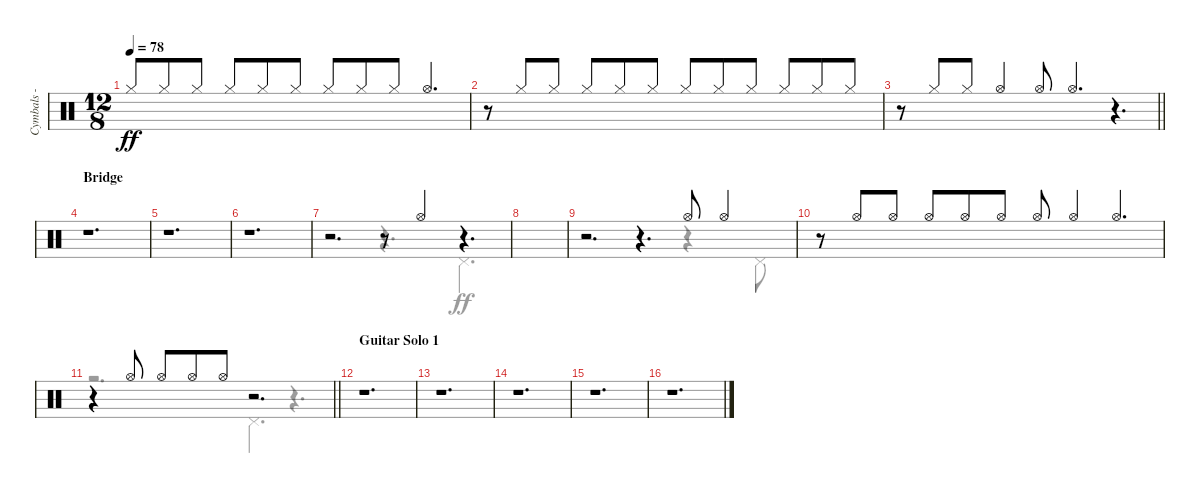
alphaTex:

\track ("Cymbals - hi-hat" "Cymbals - ") {instrument percussion}
\staff {score}
\articulation defaults
\voice
\ts (12 8)
\tempo 78
\clef neutral
\ks c "Hi-Hat (closed)".8{dy ff beam Up} "Hi-Hat (closed)".8{beam Up} "Hi-Hat (closed)".8{beam Up} "Hi-Hat (closed)".8{beam Up} "Hi-Hat (closed)".8{beam Up} "Hi-Hat (closed)".8{beam Up} "Hi-Hat (closed)".8{beam Up} "Hi-Hat (closed)".8{beam Up} "Hi-Hat (closed)".8{beam Up} "Hi-Hat (open)".4{d beam Up}
|
r.8 "Hi-Hat (closed)".8{beam Up} "Hi-Hat (closed)".8{beam Up} "Hi-Hat (closed)".8{beam Up} "Hi-Hat (closed)".8{beam Up} "Hi-Hat (closed)".8{beam Up} "Hi-Hat (closed)".8{beam Up} "Hi-Hat (closed)".8{beam Up} "Hi-Hat (closed)".8{beam Up} "Hi-Hat (closed)".8{beam Up} "Hi-Hat (closed)".8{beam Up} "Hi-Hat (closed)".8{beam Up} |
\barLineRight lightlight
r.8 "Hi-Hat (closed)".8{beam Up} "Hi-Hat (closed)".8{beam Up} "Hi-Hat (open)".4{beam Up} "Hi-Hat (open)".8{beam Up} "Hi-Hat (open)".4{d beam Up} r.4{d} |
\section ("" "Bridge")
r.1{d} |
r.1{d} |
r.1{d} |
r.2{d} r.8 "Hi-Hat (open)".4 r.4{d} |
|
r.2{d} r.4{d} "Hi-Hat (open)".8 "Hi-Hat (open)".4 |
r.8 "Hi-Hat (open)".8{beam Up} "Hi-Hat (open)".8{beam Up} "Hi-Hat (open)".8{beam Up} "Hi-Hat (open)".8{beam Up} "Hi-Hat (open)".8{beam Up} "Hi-Hat (open)".8{beam Up} "Hi-Hat (open)".4{beam Up} "Hi-Hat (open)".4{d beam Up} |
\barLineRight lightlight
r.4 "Hi-Hat (open)".8 "Hi-Hat (open)".8 "Hi-Hat (open)".8 "Hi-Hat (open)".8 r.2{d} |
\section ("" "Guitar Solo 1")
r.1{d} |
r.1{d} |
r.1{d} |
r.1{d} |
r.1{d}
\voice
\clef neutral
\ottava regular
\simile none
\ks c
|
|
\barLineRight lightlight
|
|
|
|
r.2{d} r.4{d} "Pedal Hi-Hat (hit)".4{d} |
|
r.2{d} r.4{d} r.4 "Pedal Hi-Hat (hit)".8 |
|
\barLineRight lightlight
r.2{d} "Pedal Hi-Hat (hit)".4{d} r.4{d} |
|
|
|
|
